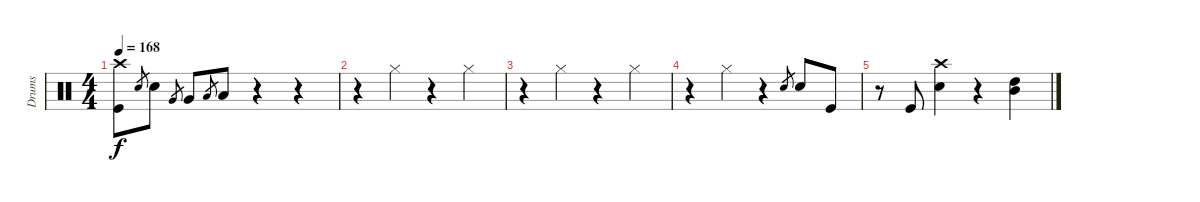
\track ("Drums" "Drums") {instrument percussion}
\staff {score}
\articulation defaults
\ts (4 4)
\tempo 168
\clef neutral
\ks c
("Crash high (hit)" "Kick (hit)").8{dy f} "Electric Snare (hit)".8{gr} "Electric Snare (hit)".8 "Very Low Tom (hit)".8{gr} "Very Low Tom (hit)".8 "Low Floor Tom (hit)".8{gr} "Low Floor Tom (hit)".8 r.4 r.4 |
r.4 "Hi-Hat (closed)".4 r.4 "Hi-Hat (closed)".4 |
r.4 "Hi-Hat (closed)".4 r.4 "Hi-Hat (closed)".4 |
r.4 "Hi-Hat (closed)".4 r.4 "Electric Snare (hit)".8{gr} "Electric Snare (hit)".8 "Kick (hit)".8 |
r.8 "Kick (hit)".8 ("Crash high (hit)" "Electric Snare (hit)").4 r.4 ("High Tom (hit)" "Mid Tom (hit)").4
